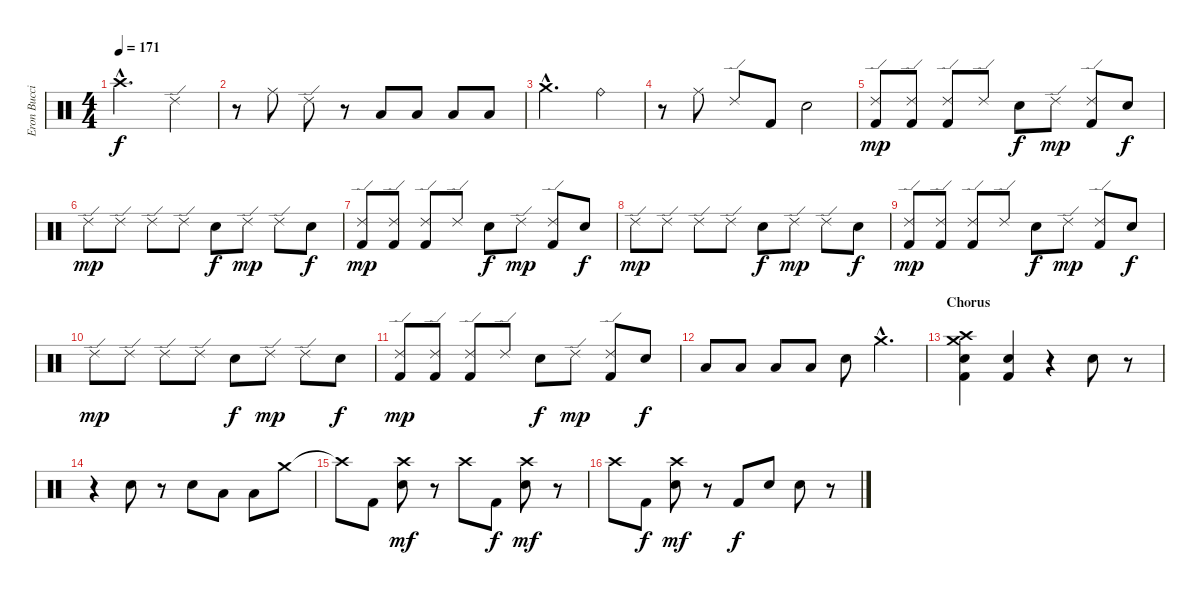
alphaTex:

\track ("Eron Bucciarelli (Drums)" "Eron Bucci") {instrument percussion}
\staff {score}
\articulation defaults
\ts (4 4)
\tempo 171
\clef neutral
\ks c "Crash high (hit)"{hac}.2{d dy f} "Ride (edge) 2".4
|
r.8 "Ride (middle)".8 "Ride (edge) 2".8 r.8 "Low Tom (hit)".8 "Low Tom (hit)".8 "Low Floor Tom (hit)".8 "Low Floor Tom (hit)".8 |
"Crash medium (hit)"{hac}.2{d} "Ride (bell)".4 |
r.8 "Ride (middle)".8 "Ride (edge) 2".8 "Kick (hit) 2".8 "Snare (hit) 2".2 |
("Ride (edge) 2" "Kick (hit) 2").8{dy mp} ("Ride (edge) 2" "Kick (hit) 2").8 ("Ride (edge) 2" "Kick (hit) 2").8 "Ride (edge) 2".8 "Snare (hit) 2".8{dy f} "Ride (edge) 2".8{dy mp} ("Ride (edge) 2" "Kick (hit) 2").8 "Snare (hit) 2".8{dy f} |
"Ride (edge) 2".8{dy mp} "Ride (edge) 2".8 "Ride (edge) 2".8 "Ride (edge) 2".8 "Snare (hit) 2".8{dy f} "Ride (edge) 2".8{dy mp} "Ride (edge) 2".8 "Snare (hit) 2".8{dy f} |
("Ride (edge) 2" "Kick (hit) 2").8{dy mp} ("Ride (edge) 2" "Kick (hit) 2").8 ("Ride (edge) 2" "Kick (hit) 2").8 "Ride (edge) 2".8 "Snare (hit) 2".8{dy f} "Ride (edge) 2".8{dy mp} ("Ride (edge) 2" "Kick (hit) 2").8 "Snare (hit) 2".8{dy f} |
"Ride (edge) 2".8{dy mp} "Ride (edge) 2".8 "Ride (edge) 2".8 "Ride (edge) 2".8 "Snare (hit) 2".8{dy f} "Ride (edge) 2".8{dy mp} "Ride (edge) 2".8 "Snare (hit) 2".8{dy f} |
("Ride (edge) 2" "Kick (hit) 2").8{dy mp} ("Ride (edge) 2" "Kick (hit) 2").8 ("Ride (edge) 2" "Kick (hit) 2").8 "Ride (edge) 2".8 "Snare (hit) 2".8{dy f} "Ride (edge) 2".8{dy mp} ("Ride (edge) 2" "Kick (hit) 2").8 "Snare (hit) 2".8{dy f} |
"Ride (edge) 2".8{dy mp} "Ride (edge) 2".8 "Ride (edge) 2".8 "Ride (edge) 2".8 "Snare (hit) 2".8{dy f} "Ride (edge) 2".8{dy mp} "Ride (edge) 2".8 "Snare (hit) 2".8{dy f} |
("Ride (edge) 2" "Kick (hit) 2").8{dy mp} ("Ride (edge) 2" "Kick (hit) 2").8 ("Ride (edge) 2" "Kick (hit) 2").8 "Ride (edge) 2".8 "Snare (hit) 2".8{dy f} "Ride (edge) 2".8{dy mp} ("Ride (edge) 2" "Kick (hit) 2").8 "Snare (hit) 2".8{dy f} |
"Low Tom (hit)".8 "Low Tom (hit)".8 "Low Floor Tom (hit)".8 "Low Floor Tom (hit)".8 "Snare (hit) 2".8 "Crash medium (hit)"{hac}.4{d} |
\section ("" "Chorus")
("Crash high (hit)" "Crash medium (hit)" "Snare (hit) 2" "Kick (hit) 2").4 ("Snare (hit) 2" "Kick (hit) 2").4 r.4 "Snare (hit) 2".8 r.8 |
r.4 "Snare (hit) 2".8 r.8 "Snare (hit) 2".8 "Low Tom (hit)".8 "Low Floor Tom (hit)".8 "Crash medium (hit)".8 |
"Crash high (hit)"{t}.8 "Kick (hit) 2".8 ("Crash high (hit)" "Snare (hit) 2").8{dy mf} r.8 "Crash high (hit)".8 "Kick (hit) 2".8{dy f} ("Crash high (hit)" "Snare (hit) 2").8{dy mf} r.8 |
"Crash high (hit)".8 "Kick (hit) 2".8{dy f} ("Crash high (hit)" "Snare (hit) 2").8{dy mf} r.8 "Kick (hit) 2".8{dy f} "Snare (hit) 2".8 "Snare (hit) 2".8 r.8
